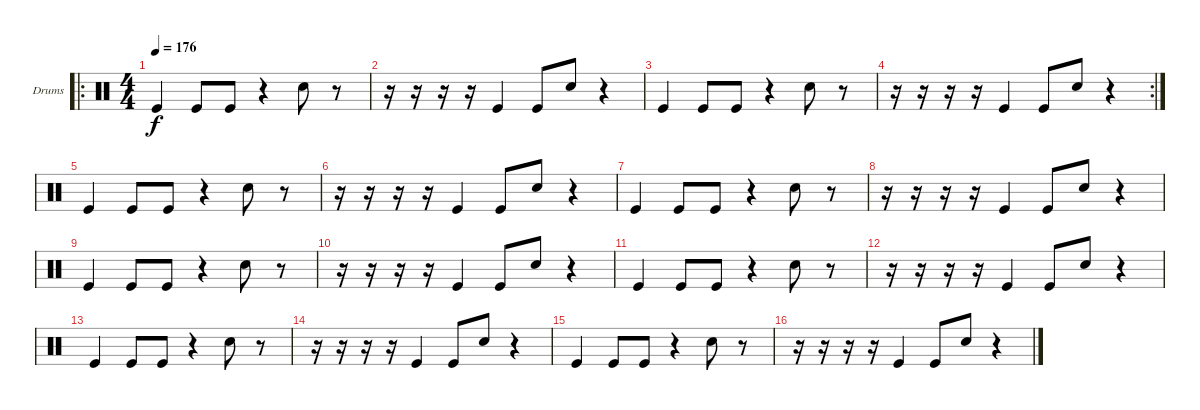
\bracketExtendMode groupsimilarinstruments
\firstSystemTrackNameOrientation horizontal
\otherSystemsTrackNameOrientation horizontal
\track ("Drumkit" "Drums") {instrument percussion}
\staff {score}
\articulation defaults
\ro
\ts (4 4)
\beaming (8 2 2 2 2)
\tempo 176
\clef neutral
\ks c "Kick (hit)".4{dy f} "Kick (hit)".8 "Kick (hit)".8
r.4 "Snare (hit) 2".8 r.8 |
r.16 r.16 r.16 r.16 "Kick (hit)".4 "Kick (hit)".8 "Snare (hit) 2".8 r.4 |
"Kick (hit)".4 "Kick (hit)".8 "Kick (hit)".8 r.4 "Snare (hit) 2".8 r.8 |
\rc 2
r.16 r.16 r.16 r.16 "Kick (hit)".4 "Kick (hit)".8 "Snare (hit) 2".8 r.4 |
"Kick (hit)".4 "Kick (hit)".8 "Kick (hit)".8 r.4 "Snare (hit) 2".8 r.8 |
r.16 r.16 r.16 r.16 "Kick (hit)".4 "Kick (hit)".8 "Snare (hit) 2".8 r.4 |
"Kick (hit)".4 "Kick (hit)".8 "Kick (hit)".8 r.4 "Snare (hit) 2".8 r.8 |
r.16 r.16 r.16 r.16 "Kick (hit)".4 "Kick (hit)".8 "Snare (hit) 2".8 r.4 |
"Kick (hit)".4 "Kick (hit)".8 "Kick (hit)".8 r.4 "Snare (hit) 2".8 r.8 |
r.16 r.16 r.16 r.16 "Kick (hit)".4 "Kick (hit)".8 "Snare (hit) 2".8 r.4 |
"Kick (hit)".4 "Kick (hit)".8 "Kick (hit)".8 r.4 "Snare (hit) 2".8 r.8 |
r.16 r.16 r.16 r.16 "Kick (hit)".4 "Kick (hit)".8 "Snare (hit) 2".8 r.4 |
"Kick (hit)".4 "Kick (hit)".8 "Kick (hit)".8 r.4 "Snare (hit) 2".8 r.8 |
r.16 r.16 r.16 r.16 "Kick (hit)".4 "Kick (hit)".8 "Snare (hit) 2".8 r.4 |
"Kick (hit)".4 "Kick (hit)".8 "Kick (hit)".8 r.4 "Snare (hit) 2".8 r.8 |
r.16 r.16 r.16 r.16 "Kick (hit)".4 "Kick (hit)".8 "Snare (hit) 2".8 r.4
